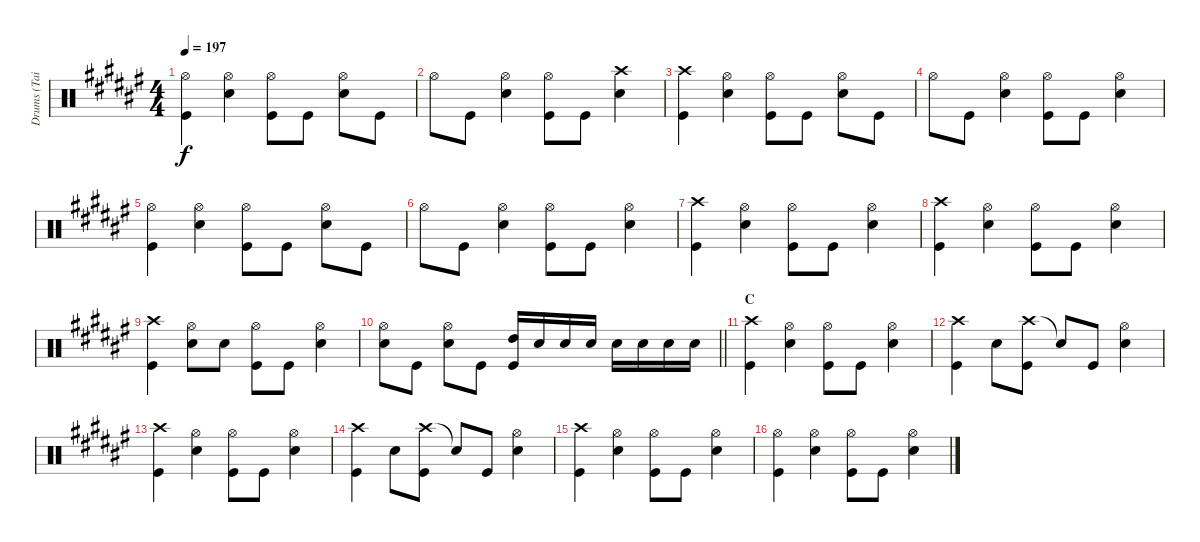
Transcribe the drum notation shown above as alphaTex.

\track ("Drums (Tainaka Ritsu)" "Drums (Tai") {instrument percussion}
\staff {score}
\articulation defaults
\ts (4 4)
\tempo 197
\clef neutral
\ks f#
("Hi-Hat (open)" "Kick (hit)").4{dy f} ("Hi-Hat (open)" "Snare (hit) 2").4 ("Hi-Hat (open)" "Kick (hit)").8 "Kick (hit)".8 ("Hi-Hat (open)" "Snare (hit) 2").8 "Kick (hit)".8 |
"Hi-Hat (open)".8 "Kick (hit)".8 ("Hi-Hat (open)" "Snare (hit) 2").4 ("Hi-Hat (open)" "Kick (hit)").8 "Kick (hit)".8 ("Crash high (hit)" "Snare (hit) 2").4 |
("Crash high (hit)" "Kick (hit)").4 ("Hi-Hat (open)" "Snare (hit) 2").4 ("Hi-Hat (open)" "Kick (hit)").8 "Kick (hit)".8 ("Hi-Hat (open)" "Snare (hit) 2").8 "Kick (hit)".8 |
"Hi-Hat (open)".8 "Kick (hit)".8 ("Hi-Hat (open)" "Snare (hit) 2").4 ("Hi-Hat (open)" "Kick (hit)").8 "Kick (hit)".8 ("Hi-Hat (open)" "Snare (hit) 2").4 |
("Hi-Hat (open)" "Kick (hit)").4 ("Hi-Hat (open)" "Snare (hit) 2").4 ("Hi-Hat (open)" "Kick (hit)").8 "Kick (hit)".8 ("Hi-Hat (open)" "Snare (hit) 2").8 "Kick (hit)".8 |
"Hi-Hat (open)".8 "Kick (hit)".8 ("Hi-Hat (open)" "Snare (hit) 2").4 ("Hi-Hat (open)" "Kick (hit)").8 "Kick (hit)".8 ("Hi-Hat (open)" "Snare (hit) 2").4 |
("Crash high (hit)" "Kick (hit)").4 ("Hi-Hat (open)" "Snare (hit) 2").4 ("Hi-Hat (open)" "Kick (hit)").8 "Kick (hit)".8 ("Hi-Hat (open)" "Snare (hit) 2").4 |
("Crash high (hit)" "Kick (hit)").4 ("Hi-Hat (open)" "Snare (hit) 2").4 ("Hi-Hat (open)" "Kick (hit)").8 "Kick (hit)".8 ("Hi-Hat (open)" "Snare (hit) 2").4 |
("Crash high (hit)" "Kick (hit)").4 ("Hi-Hat (open)" "Snare (hit) 2").8 "Snare (hit) 2".8 ("Hi-Hat (open)" "Kick (hit)").8 "Kick (hit)".8 ("Hi-Hat (open)" "Snare (hit) 2").4 |
\barLineRight lightlight
("Hi-Hat (open)" "Snare (hit) 2").8 "Kick (hit)".8 ("Hi-Hat (open)" "Snare (hit) 2").8 "Kick (hit)".8 ("High Tom (hit)" "Kick (hit)").16 "Snare (hit) 2".16 "Snare (hit) 2".16 "Snare (hit) 2".16 "Snare (hit) 2".16 "Snare (hit) 2".16 "Snare (hit) 2".16 "Snare (hit) 2".16 |
\section ("" "C")
("Crash high (hit)" "Kick (hit)").4 ("Hi-Hat (open)" "Snare (hit) 2").4 ("Hi-Hat (open)" "Kick (hit)").8 "Kick (hit)".8 ("Hi-Hat (open)" "Snare (hit) 2").4 |
("Crash high (hit)" "Kick (hit)").4 "Snare (hit) 2".8 ("Crash high (hit)" "Kick (hit)").8 "Snare (hit)"{t}.8 "Kick (hit)".8 ("Hi-Hat (open)" "Snare (hit) 2").4 |
("Crash high (hit)" "Kick (hit)").4 ("Hi-Hat (open)" "Snare (hit) 2").4 ("Hi-Hat (open)" "Kick (hit)").8 "Kick (hit)".8 ("Hi-Hat (open)" "Snare (hit) 2").4 |
("Crash high (hit)" "Kick (hit)").4 "Snare (hit) 2".8 ("Crash high (hit)" "Kick (hit)").8 "Snare (hit)"{t}.8 "Kick (hit)".8 ("Hi-Hat (open)" "Snare (hit) 2").4 |
("Crash high (hit)" "Kick (hit)").4 ("Hi-Hat (open)" "Snare (hit) 2").4 ("Hi-Hat (open)" "Kick (hit)").8 "Kick (hit)".8 ("Hi-Hat (open)" "Snare (hit) 2").4 |
("Hi-Hat (open)" "Kick (hit)").4 ("Hi-Hat (open)" "Snare (hit) 2").4 ("Hi-Hat (open)" "Kick (hit)").8 "Kick (hit)".8 ("Hi-Hat (open)" "Snare (hit) 2").4
